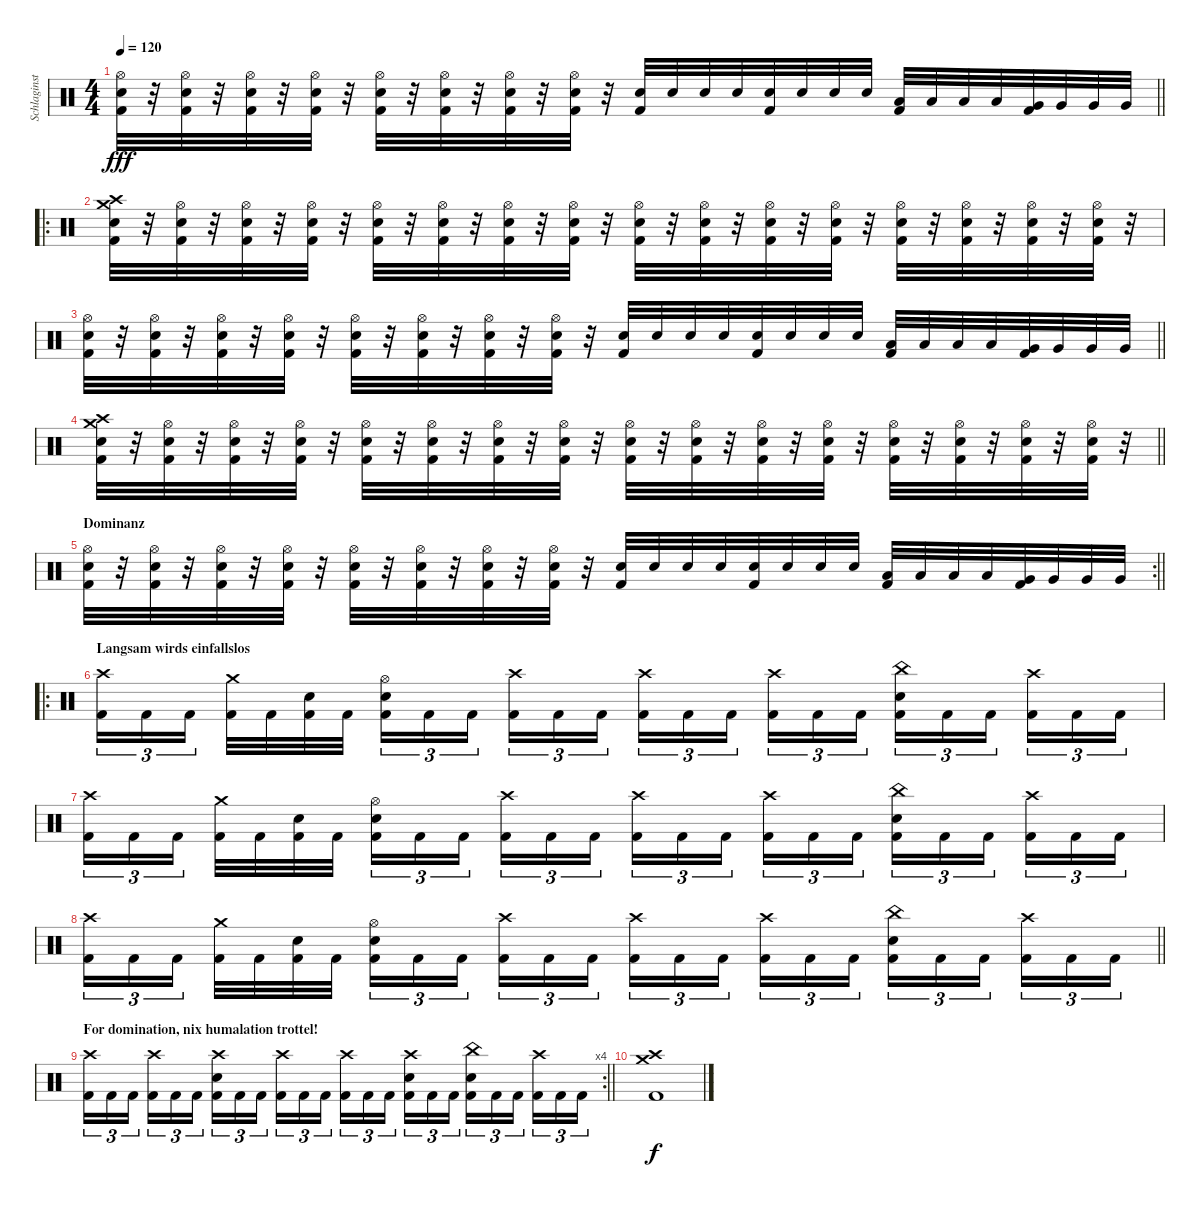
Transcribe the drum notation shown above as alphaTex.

\track ("Schlaginstrumente - Auswahl" "Schlaginst") {instrument percussion}
\staff {score}
\articulation defaults
\ts (4 4)
\tempo 120
\clef neutral
\barLineRight lightlight
\ks c
("Hi-Hat (open)" "Electric Snare (hit)" "Kick (hit) 2").32{dy fff} r.32 ("Hi-Hat (open)" "Electric Snare (hit)" "Kick (hit) 2").32 r.32 ("Hi-Hat (open)" "Electric Snare (hit)" "Kick (hit) 2").32 r.32 ("Hi-Hat (open)" "Electric Snare (hit)" "Kick (hit) 2").32 r.32 ("Hi-Hat (open)" "Electric Snare (hit)" "Kick (hit) 2").32 r.32 ("Hi-Hat (open)" "Electric Snare (hit)" "Kick (hit) 2").32 r.32 ("Hi-Hat (open)" "Electric Snare (hit)" "Kick (hit) 2").32 r.32 ("Hi-Hat (open)" "Electric Snare (hit)" "Kick (hit) 2").32 r.32 ("Electric Snare (hit)" "Kick (hit) 2").32 "Electric Snare (hit)".32 "Electric Snare (hit)".32 "Electric Snare (hit)".32 ("Electric Snare (hit)" "Kick (hit) 2").32 "Electric Snare (hit)".32 "Electric Snare (hit)".32 "Electric Snare (hit)".32 ("Low Tom (hit)" "Kick (hit) 2").32 "Low Tom (hit)".32 "Low Tom (hit)".32 "Low Tom (hit)".32 ("Very Low Tom (hit)" "Kick (hit) 2").32 "Very Low Tom (hit)".32 "Very Low Tom (hit)".32 "Very Low Tom (hit)".32 |
\ro
("Crash medium (hit)" "Crash high (hit)" "Electric Snare (hit)" "Kick (hit) 2").32 r.32 ("Hi-Hat (open)" "Electric Snare (hit)" "Kick (hit) 2").32 r.32 ("Hi-Hat (open)" "Electric Snare (hit)" "Kick (hit) 2").32 r.32 ("Hi-Hat (open)" "Electric Snare (hit)" "Kick (hit) 2").32 r.32 ("Hi-Hat (open)" "Electric Snare (hit)" "Kick (hit) 2").32 r.32 ("Hi-Hat (open)" "Electric Snare (hit)" "Kick (hit) 2").32 r.32 ("Hi-Hat (open)" "Electric Snare (hit)" "Kick (hit) 2").32 r.32 ("Hi-Hat (open)" "Electric Snare (hit)" "Kick (hit) 2").32 r.32 ("Hi-Hat (open)" "Electric Snare (hit)" "Kick (hit) 2").32 r.32 ("Hi-Hat (open)" "Electric Snare (hit)" "Kick (hit) 2").32 r.32 ("Hi-Hat (open)" "Electric Snare (hit)" "Kick (hit) 2").32 r.32 ("Hi-Hat (open)" "Electric Snare (hit)" "Kick (hit) 2").32 r.32 ("Hi-Hat (open)" "Electric Snare (hit)" "Kick (hit) 2").32 r.32 ("Hi-Hat (open)" "Electric Snare (hit)" "Kick (hit) 2").32 r.32 ("Hi-Hat (open)" "Electric Snare (hit)" "Kick (hit) 2").32 r.32 ("Hi-Hat (open)" "Electric Snare (hit)" "Kick (hit) 2").32 r.32 |
\barLineRight lightlight
("Hi-Hat (open)" "Electric Snare (hit)" "Kick (hit) 2").32 r.32 ("Hi-Hat (open)" "Electric Snare (hit)" "Kick (hit) 2").32 r.32 ("Hi-Hat (open)" "Electric Snare (hit)" "Kick (hit) 2").32 r.32 ("Hi-Hat (open)" "Electric Snare (hit)" "Kick (hit) 2").32 r.32 ("Hi-Hat (open)" "Electric Snare (hit)" "Kick (hit) 2").32 r.32 ("Hi-Hat (open)" "Electric Snare (hit)" "Kick (hit) 2").32 r.32 ("Hi-Hat (open)" "Electric Snare (hit)" "Kick (hit) 2").32 r.32 ("Hi-Hat (open)" "Electric Snare (hit)" "Kick (hit) 2").32 r.32 ("Electric Snare (hit)" "Kick (hit) 2").32 "Electric Snare (hit)".32 "Electric Snare (hit)".32 "Electric Snare (hit)".32 ("Electric Snare (hit)" "Kick (hit) 2").32 "Electric Snare (hit)".32 "Electric Snare (hit)".32 "Electric Snare (hit)".32 ("Low Tom (hit)" "Kick (hit) 2").32 "Low Tom (hit)".32 "Low Tom (hit)".32 "Low Tom (hit)".32 ("Very Low Tom (hit)" "Kick (hit) 2").32 "Very Low Tom (hit)".32 "Very Low Tom (hit)".32 "Very Low Tom (hit)".32 |
\barLineRight lightlight
("Crash medium (hit)" "Crash high (hit)" "Electric Snare (hit)" "Kick (hit) 2").32 r.32 ("Hi-Hat (open)" "Electric Snare (hit)" "Kick (hit) 2").32 r.32 ("Hi-Hat (open)" "Electric Snare (hit)" "Kick (hit) 2").32 r.32 ("Hi-Hat (open)" "Electric Snare (hit)" "Kick (hit) 2").32 r.32 ("Hi-Hat (open)" "Electric Snare (hit)" "Kick (hit) 2").32 r.32 ("Hi-Hat (open)" "Electric Snare (hit)" "Kick (hit) 2").32 r.32 ("Hi-Hat (open)" "Electric Snare (hit)" "Kick (hit) 2").32 r.32 ("Hi-Hat (open)" "Electric Snare (hit)" "Kick (hit) 2").32 r.32 ("Hi-Hat (open)" "Electric Snare (hit)" "Kick (hit) 2").32 r.32 ("Hi-Hat (open)" "Electric Snare (hit)" "Kick (hit) 2").32 r.32 ("Hi-Hat (open)" "Electric Snare (hit)" "Kick (hit) 2").32 r.32 ("Hi-Hat (open)" "Electric Snare (hit)" "Kick (hit) 2").32 r.32 ("Hi-Hat (open)" "Electric Snare (hit)" "Kick (hit) 2").32 r.32 ("Hi-Hat (open)" "Electric Snare (hit)" "Kick (hit) 2").32 r.32 ("Hi-Hat (open)" "Electric Snare (hit)" "Kick (hit) 2").32 r.32 ("Hi-Hat (open)" "Electric Snare (hit)" "Kick (hit) 2").32 r.32 |
\rc 2
\section ("" "Dominanz")
\barLineRight lightlight
("Hi-Hat (open)" "Electric Snare (hit)" "Kick (hit) 2").32 r.32 ("Hi-Hat (open)" "Electric Snare (hit)" "Kick (hit) 2").32 r.32 ("Hi-Hat (open)" "Electric Snare (hit)" "Kick (hit) 2").32 r.32 ("Hi-Hat (open)" "Electric Snare (hit)" "Kick (hit) 2").32 r.32 ("Hi-Hat (open)" "Electric Snare (hit)" "Kick (hit) 2").32 r.32 ("Hi-Hat (open)" "Electric Snare (hit)" "Kick (hit) 2").32 r.32 ("Hi-Hat (open)" "Electric Snare (hit)" "Kick (hit) 2").32 r.32 ("Hi-Hat (open)" "Electric Snare (hit)" "Kick (hit) 2").32 r.32 ("Electric Snare (hit)" "Kick (hit) 2").32 "Electric Snare (hit)".32 "Electric Snare (hit)".32 "Electric Snare (hit)".32 ("Electric Snare (hit)" "Kick (hit) 2").32 "Electric Snare (hit)".32 "Electric Snare (hit)".32 "Electric Snare (hit)".32 ("Low Tom (hit)" "Kick (hit) 2").32 "Low Tom (hit)".32 "Low Tom (hit)".32 "Low Tom (hit)".32 ("Very Low Tom (hit)" "Kick (hit) 2").32 "Very Low Tom (hit)".32 "Very Low Tom (hit)".32 "Very Low Tom (hit)".32 |
\ro
\section ("" "Langsam wirds einfallslos")
("Crash high (hit)" "Kick (hit) 2").16{tu (3 2)} "Kick (hit) 2".16{tu (3 2)} "Kick (hit) 2".16{tu (3 2) beam splitsecondary} ("Crash medium (hit)" "Kick (hit) 2").32 "Kick (hit) 2".32 ("Electric Snare (hit)" "Kick (hit) 2").32 "Kick (hit) 2".32 ("Hi-Hat (open)" "Electric Snare (hit)" "Kick (hit) 2").16{tu (3 2)} "Kick (hit) 2".16{tu (3 2)} "Kick (hit) 2".16{tu (3 2) beam splitsecondary} ("Crash high (hit)" "Kick (hit) 2").16{tu (3 2)} "Kick (hit) 2".16{tu (3 2)} "Kick (hit) 2".16{tu (3 2)} ("Crash high (hit)" "Kick (hit) 2").16{tu (3 2)} "Kick (hit) 2".16{tu (3 2)} "Kick (hit) 2".16{tu (3 2) beam splitsecondary} ("Crash high (hit)" "Kick (hit) 2").16{tu (3 2)} "Kick (hit) 2".16{tu (3 2)} "Kick (hit) 2".16{tu (3 2)} ("China (hit)" "Electric Snare (hit)" "Kick (hit) 2").16{tu (3 2)} "Kick (hit) 2".16{tu (3 2)} "Kick (hit) 2".16{tu (3 2) beam splitsecondary} ("Crash high (hit)" "Kick (hit) 2").16{tu (3 2)} "Kick (hit) 2".16{tu (3 2)} "Kick (hit) 2".16{tu (3 2)} |
("Crash high (hit)" "Kick (hit) 2").16{tu (3 2)} "Kick (hit) 2".16{tu (3 2)} "Kick (hit) 2".16{tu (3 2) beam splitsecondary} ("Crash medium (hit)" "Kick (hit) 2").32 "Kick (hit) 2".32 ("Electric Snare (hit)" "Kick (hit) 2").32 "Kick (hit) 2".32 ("Hi-Hat (open)" "Electric Snare (hit)" "Kick (hit) 2").16{tu (3 2)} "Kick (hit) 2".16{tu (3 2)} "Kick (hit) 2".16{tu (3 2) beam splitsecondary} ("Crash high (hit)" "Kick (hit) 2").16{tu (3 2)} "Kick (hit) 2".16{tu (3 2)} "Kick (hit) 2".16{tu (3 2)} ("Crash high (hit)" "Kick (hit) 2").16{tu (3 2)} "Kick (hit) 2".16{tu (3 2)} "Kick (hit) 2".16{tu (3 2) beam splitsecondary} ("Crash high (hit)" "Kick (hit) 2").16{tu (3 2)} "Kick (hit) 2".16{tu (3 2)} "Kick (hit) 2".16{tu (3 2)} ("China (hit)" "Electric Snare (hit)" "Kick (hit) 2").16{tu (3 2)} "Kick (hit) 2".16{tu (3 2)} "Kick (hit) 2".16{tu (3 2) beam splitsecondary} ("Crash high (hit)" "Kick (hit) 2").16{tu (3 2)} "Kick (hit) 2".16{tu (3 2)} "Kick (hit) 2".16{tu (3 2)} |
\barLineRight lightlight
("Crash high (hit)" "Kick (hit) 2").16{tu (3 2)} "Kick (hit) 2".16{tu (3 2)} "Kick (hit) 2".16{tu (3 2) beam splitsecondary} ("Crash medium (hit)" "Kick (hit) 2").32 "Kick (hit) 2".32 ("Electric Snare (hit)" "Kick (hit) 2").32 "Kick (hit) 2".32 ("Hi-Hat (open)" "Electric Snare (hit)" "Kick (hit) 2").16{tu (3 2)} "Kick (hit) 2".16{tu (3 2)} "Kick (hit) 2".16{tu (3 2) beam splitsecondary} ("Crash high (hit)" "Kick (hit) 2").16{tu (3 2)} "Kick (hit) 2".16{tu (3 2)} "Kick (hit) 2".16{tu (3 2)} ("Crash high (hit)" "Kick (hit) 2").16{tu (3 2)} "Kick (hit) 2".16{tu (3 2)} "Kick (hit) 2".16{tu (3 2) beam splitsecondary} ("Crash high (hit)" "Kick (hit) 2").16{tu (3 2)} "Kick (hit) 2".16{tu (3 2)} "Kick (hit) 2".16{tu (3 2)} ("China (hit)" "Electric Snare (hit)" "Kick (hit) 2").16{tu (3 2)} "Kick (hit) 2".16{tu (3 2)} "Kick (hit) 2".16{tu (3 2) beam splitsecondary} ("Crash high (hit)" "Kick (hit) 2").16{tu (3 2)} "Kick (hit) 2".16{tu (3 2)} "Kick (hit) 2".16{tu (3 2)} |
\rc 4
\section ("" "For domination, nix humalation trottel!")
\barLineRight lightlight
("Crash high (hit)" "Kick (hit) 2").16{tu (3 2)} "Kick (hit) 2".16{tu (3 2)} "Kick (hit) 2".16{tu (3 2) beam splitsecondary} ("Crash high (hit)" "Kick (hit) 2").16{tu (3 2)} "Kick (hit) 2".16{tu (3 2)} "Kick (hit) 2".16{tu (3 2)} ("Crash high (hit)" "Electric Snare (hit)" "Kick (hit) 2").16{tu (3 2)} "Kick (hit) 2".16{tu (3 2)} "Kick (hit) 2".16{tu (3 2) beam splitsecondary} ("Crash high (hit)" "Kick (hit) 2").16{tu (3 2)} "Kick (hit) 2".16{tu (3 2)} "Kick (hit) 2".16{tu (3 2)} ("Crash high (hit)" "Kick (hit) 2").16{tu (3 2)} "Kick (hit) 2".16{tu (3 2)} "Kick (hit) 2".16{tu (3 2) beam splitsecondary} ("Crash high (hit)" "Electric Snare (hit)" "Kick (hit) 2").16{tu (3 2)} "Kick (hit) 2".16{tu (3 2)} "Kick (hit) 2".16{tu (3 2)} ("China (hit)" "Electric Snare (hit)" "Kick (hit) 2").16{tu (3 2)} "Kick (hit) 2".16{tu (3 2)} "Kick (hit) 2".16{tu (3 2) beam splitsecondary} ("Crash high (hit)" "Kick (hit) 2").16{tu (3 2)} "Kick (hit) 2".16{tu (3 2)} "Kick (hit) 2".16{tu (3 2)} |
("Kick (hit) 2" "Crash medium (hit)" "Crash high (hit)").1{dy f}
